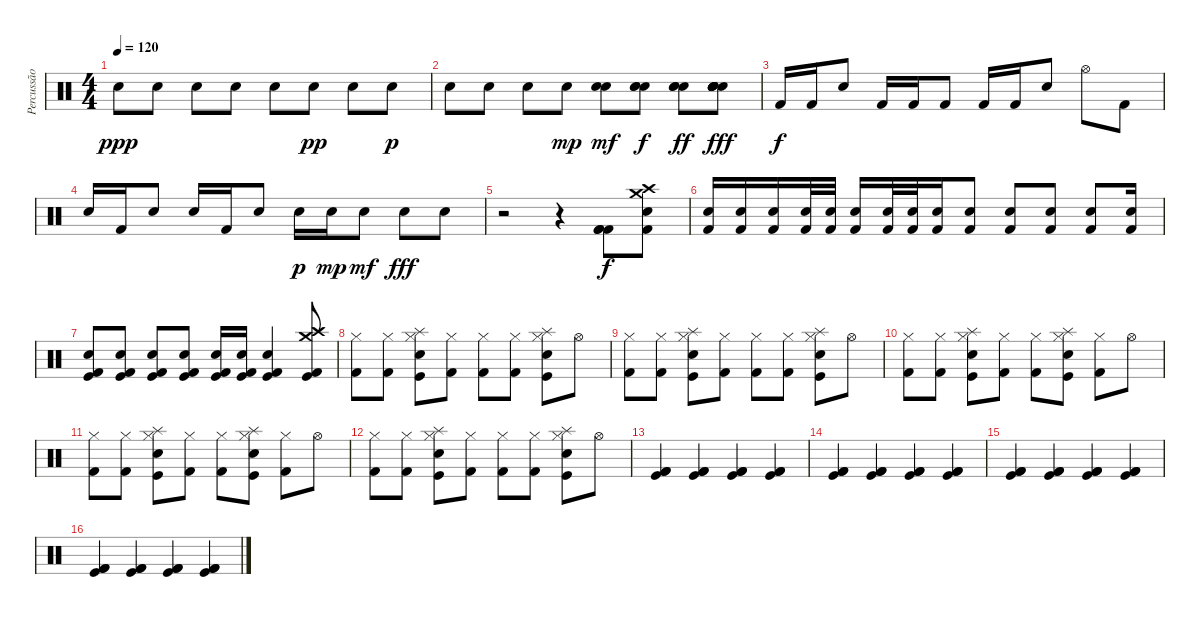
\track ("Percussão" "Percussão") {instrument percussion}
\staff {score}
\articulation defaults
\ts (4 4)
\tempo 120
\clef neutral
\ks c "Snare (hit) 2".8{dy ppp} "Snare (hit) 2".8 "Snare (hit) 2".8 "Snare (hit) 2".8 "Snare (hit) 2".8 "Snare (hit) 2".8{dy pp} "Snare (hit) 2".8 "Snare (hit) 2".8{dy p}
|
"Snare (hit) 2".8 "Snare (hit) 2".8 "Snare (hit) 2".8 "Snare (hit) 2".8{dy mp} ("Snare (hit) 2" "Snare (hit) 2").8{dy mf} ("Snare (hit) 2" "Snare (hit) 2" "Snare (hit) 2").8{dy f} ("Snare (hit) 2" "Snare (hit) 2" "Snare (hit) 2").8{dy ff} ("Snare (hit) 2" "Snare (hit) 2" "Snare (hit) 2" "Snare (hit) 2" "Snare (hit) 2" "Snare (hit) 2").8{dy fff} |
"Kick (hit) 2".16{dy f} "Kick (hit) 2".16 "Snare (hit) 2".8 "Kick (hit) 2".16 "Kick (hit) 2".16 "Kick (hit) 2".8 "Kick (hit) 2".16 "Kick (hit) 2".16 "Snare (hit) 2".8 "Hi-Hat (open)".8 "Kick (hit) 2".8 |
"Electric Snare (hit)".16 "Kick (hit) 2".16 "Snare (hit) 2".8 "Electric Snare (hit)".16 "Kick (hit) 2".16 "Electric Snare (hit)".8 "Electric Snare (hit)".16{dy p} "Electric Snare (hit)".16{dy mp} "Electric Snare (hit)".8{dy mf} "Electric Snare (hit)".8{dy fff} "Electric Snare (hit)".8 |
r.2 r.4 ("Kick (hit) 2" "Kick (hit) 2" "Kick (hit) 2").8{dy f} ("Kick (hit) 2" "Snare (hit) 2" "Crash medium (hit)" "Crash high (hit)").8 |
("Electric Snare (hit)" "Kick (hit) 2").16 ("Electric Snare (hit)" "Kick (hit) 2").16 ("Electric Snare (hit)" "Kick (hit) 2").16 ("Electric Snare (hit)" "Kick (hit) 2").32 ("Electric Snare (hit)" "Kick (hit) 2").32 ("Electric Snare (hit)" "Kick (hit) 2").16 ("Electric Snare (hit)" "Kick (hit) 2").32 ("Electric Snare (hit)" "Kick (hit) 2").32 ("Electric Snare (hit)" "Kick (hit) 2").16 ("Electric Snare (hit)" "Kick (hit) 2").8 ("Electric Snare (hit)" "Kick (hit) 2").8 ("Electric Snare (hit)" "Kick (hit) 2").8 ("Electric Snare (hit)" "Kick (hit) 2").8 ("Snare (hit) 2" "Kick (hit) 2").16 |
("Electric Snare (hit)" "Kick (hit)" "Kick (hit) 2").8 ("Electric Snare (hit)" "Kick (hit)" "Kick (hit) 2").8 ("Snare (hit) 2" "Kick (hit)" "Kick (hit) 2").8 ("Electric Snare (hit)" "Kick (hit)" "Kick (hit) 2").8 ("Electric Snare (hit)" "Kick (hit)" "Kick (hit) 2").16 ("Electric Snare (hit)" "Kick (hit)" "Kick (hit) 2").16 ("Snare (hit) 2" "Kick (hit)" "Kick (hit) 2").4 ("Crash medium (hit)" "Crash high (hit)" "Kick (hit)" "Kick (hit) 2").8 |
("Kick (hit) 2" "Hi-Hat (closed)").8 ("Kick (hit) 2" "Hi-Hat (closed)").8 ("Snare (hit) 2" "Kick (hit)" "Splash (hit)" "Hi-Hat (closed)").8 ("Kick (hit) 2" "Hi-Hat (closed)").8 ("Kick (hit) 2" "Hi-Hat (closed)").8 ("Kick (hit) 2" "Hi-Hat (closed)").8 ("Snare (hit) 2" "Kick (hit)" "Splash (hit)" "Hi-Hat (closed)").8 "Hi-Hat (open)".8 |
("Kick (hit) 2" "Hi-Hat (closed)").8 ("Kick (hit) 2" "Hi-Hat (closed)").8 ("Snare (hit) 2" "Kick (hit)" "Splash (hit)" "Hi-Hat (closed)").8 ("Kick (hit) 2" "Hi-Hat (closed)").8 ("Kick (hit) 2" "Hi-Hat (closed)").8 ("Kick (hit) 2" "Hi-Hat (closed)").8 ("Snare (hit) 2" "Kick (hit)" "Splash (hit)" "Hi-Hat (closed)").8 "Hi-Hat (open)".8 |
("Kick (hit) 2" "Hi-Hat (closed)").8 ("Kick (hit) 2" "Hi-Hat (closed)").8 ("Snare (hit) 2" "Kick (hit)" "Splash (hit)" "Hi-Hat (closed)").8 ("Kick (hit) 2" "Hi-Hat (closed)").8 ("Kick (hit) 2" "Hi-Hat (closed)").8 ("Snare (hit) 2" "Kick (hit)" "Splash (hit)" "Hi-Hat (closed)").8 ("Kick (hit) 2" "Hi-Hat (closed)").8 "Hi-Hat (open)".8 |
("Kick (hit) 2" "Hi-Hat (closed)").8 ("Kick (hit) 2" "Hi-Hat (closed)").8 ("Snare (hit) 2" "Kick (hit)" "Splash (hit)" "Hi-Hat (closed)").8 ("Kick (hit) 2" "Hi-Hat (closed)").8 ("Kick (hit) 2" "Hi-Hat (closed)").8 ("Snare (hit) 2" "Kick (hit)" "Splash (hit)" "Hi-Hat (closed)").8 ("Kick (hit) 2" "Hi-Hat (closed)").8 "Hi-Hat (open)".8 |
("Kick (hit) 2" "Hi-Hat (closed)").8 ("Kick (hit) 2" "Hi-Hat (closed)").8 ("Snare (hit) 2" "Kick (hit)" "Splash (hit)" "Hi-Hat (closed)").8 ("Kick (hit) 2" "Hi-Hat (closed)").8 ("Kick (hit) 2" "Hi-Hat (closed)").8 ("Kick (hit) 2" "Hi-Hat (closed)").8 ("Snare (hit) 2" "Kick (hit)" "Splash (hit)" "Hi-Hat (closed)").8 "Hi-Hat (open)".8 |
("Kick (hit) 2" "Kick (hit) 2" "Kick (hit)").4 ("Kick (hit) 2" "Kick (hit) 2" "Kick (hit)").4 ("Kick (hit) 2" "Kick (hit) 2" "Kick (hit)").4 ("Kick (hit) 2" "Kick (hit) 2" "Kick (hit)").4 |
("Kick (hit) 2" "Kick (hit) 2" "Kick (hit)").4 ("Kick (hit) 2" "Kick (hit) 2" "Kick (hit)").4 ("Kick (hit) 2" "Kick (hit) 2" "Kick (hit)").4 ("Kick (hit) 2" "Kick (hit) 2" "Kick (hit)").4 |
("Kick (hit) 2" "Kick (hit) 2" "Kick (hit)").4 ("Kick (hit) 2" "Kick (hit) 2" "Kick (hit)").4 ("Kick (hit) 2" "Kick (hit) 2" "Kick (hit)").4 ("Kick (hit) 2" "Kick (hit) 2" "Kick (hit)").4 |
("Kick (hit) 2" "Kick (hit) 2" "Kick (hit)").4 ("Kick (hit) 2" "Kick (hit) 2" "Kick (hit)").4 ("Kick (hit) 2" "Kick (hit) 2" "Kick (hit)").4 ("Kick (hit) 2" "Kick (hit) 2" "Kick (hit)").4
